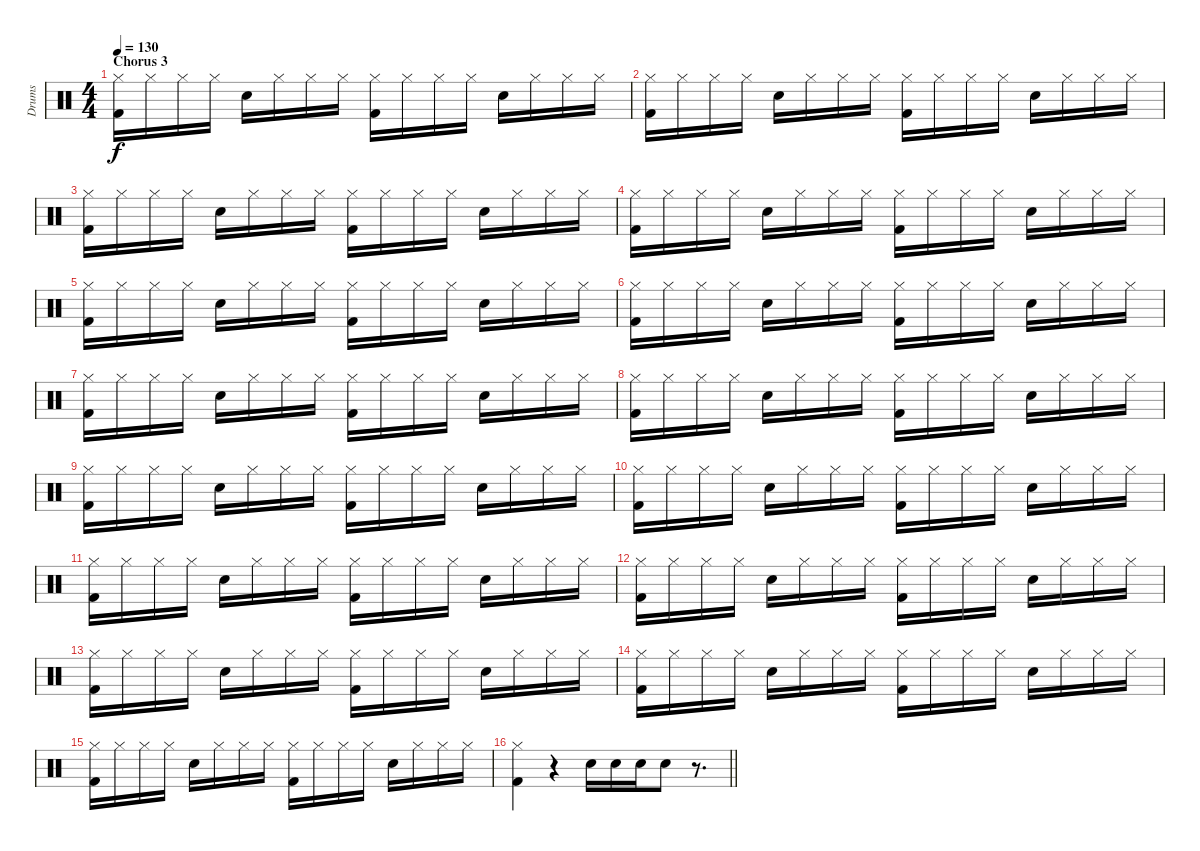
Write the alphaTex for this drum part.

\track ("Drums" "Drums") {instrument percussion}
\staff {score}
\articulation defaults
\ts (4 4)
\section ("" "Chorus 3")
\tempo 130
\clef neutral
\ks c
("Hi-Hat (closed)" "Kick (hit) 2").16{dy f} "Hi-Hat (closed)".16 "Hi-Hat (closed)".16 "Hi-Hat (closed)".16 "Snare (hit) 2".16 "Hi-Hat (closed)".16 "Hi-Hat (closed)".16 "Hi-Hat (closed)".16 ("Hi-Hat (closed)" "Kick (hit) 2").16 "Hi-Hat (closed)".16 "Hi-Hat (closed)".16 "Hi-Hat (closed)".16 "Snare (hit) 2".16 "Hi-Hat (closed)".16 "Hi-Hat (closed)".16 "Hi-Hat (closed)".16 |
("Hi-Hat (closed)" "Kick (hit) 2").16 "Hi-Hat (closed)".16 "Hi-Hat (closed)".16 "Hi-Hat (closed)".16 "Snare (hit) 2".16 "Hi-Hat (closed)".16 "Hi-Hat (closed)".16 "Hi-Hat (closed)".16 ("Hi-Hat (closed)" "Kick (hit) 2").16 "Hi-Hat (closed)".16 "Hi-Hat (closed)".16 "Hi-Hat (closed)".16 "Snare (hit) 2".16 "Hi-Hat (closed)".16 "Hi-Hat (closed)".16 "Hi-Hat (closed)".16 |
("Hi-Hat (closed)" "Kick (hit) 2").16 "Hi-Hat (closed)".16 "Hi-Hat (closed)".16 "Hi-Hat (closed)".16 "Snare (hit) 2".16 "Hi-Hat (closed)".16 "Hi-Hat (closed)".16 "Hi-Hat (closed)".16 ("Hi-Hat (closed)" "Kick (hit) 2").16 "Hi-Hat (closed)".16 "Hi-Hat (closed)".16 "Hi-Hat (closed)".16 "Snare (hit) 2".16 "Hi-Hat (closed)".16 "Hi-Hat (closed)".16 "Hi-Hat (closed)".16 |
("Hi-Hat (closed)" "Kick (hit) 2").16 "Hi-Hat (closed)".16 "Hi-Hat (closed)".16 "Hi-Hat (closed)".16 "Snare (hit) 2".16 "Hi-Hat (closed)".16 "Hi-Hat (closed)".16 "Hi-Hat (closed)".16 ("Hi-Hat (closed)" "Kick (hit) 2").16 "Hi-Hat (closed)".16 "Hi-Hat (closed)".16 "Hi-Hat (closed)".16 "Snare (hit) 2".16 "Hi-Hat (closed)".16 "Hi-Hat (closed)".16 "Hi-Hat (closed)".16 |
("Hi-Hat (closed)" "Kick (hit) 2").16 "Hi-Hat (closed)".16 "Hi-Hat (closed)".16 "Hi-Hat (closed)".16 "Snare (hit) 2".16 "Hi-Hat (closed)".16 "Hi-Hat (closed)".16 "Hi-Hat (closed)".16 ("Hi-Hat (closed)" "Kick (hit) 2").16 "Hi-Hat (closed)".16 "Hi-Hat (closed)".16 "Hi-Hat (closed)".16 "Snare (hit) 2".16 "Hi-Hat (closed)".16 "Hi-Hat (closed)".16 "Hi-Hat (closed)".16 |
("Hi-Hat (closed)" "Kick (hit) 2").16 "Hi-Hat (closed)".16 "Hi-Hat (closed)".16 "Hi-Hat (closed)".16 "Snare (hit) 2".16 "Hi-Hat (closed)".16 "Hi-Hat (closed)".16 "Hi-Hat (closed)".16 ("Hi-Hat (closed)" "Kick (hit) 2").16 "Hi-Hat (closed)".16 "Hi-Hat (closed)".16 "Hi-Hat (closed)".16 "Snare (hit) 2".16 "Hi-Hat (closed)".16 "Hi-Hat (closed)".16 "Hi-Hat (closed)".16 |
("Hi-Hat (closed)" "Kick (hit) 2").16 "Hi-Hat (closed)".16 "Hi-Hat (closed)".16 "Hi-Hat (closed)".16 "Snare (hit) 2".16 "Hi-Hat (closed)".16 "Hi-Hat (closed)".16 "Hi-Hat (closed)".16 ("Hi-Hat (closed)" "Kick (hit) 2").16 "Hi-Hat (closed)".16 "Hi-Hat (closed)".16 "Hi-Hat (closed)".16 "Snare (hit) 2".16 "Hi-Hat (closed)".16 "Hi-Hat (closed)".16 "Hi-Hat (closed)".16 |
("Hi-Hat (closed)" "Kick (hit) 2").16 "Hi-Hat (closed)".16 "Hi-Hat (closed)".16 "Hi-Hat (closed)".16 "Snare (hit) 2".16 "Hi-Hat (closed)".16 "Hi-Hat (closed)".16 "Hi-Hat (closed)".16 ("Hi-Hat (closed)" "Kick (hit) 2").16 "Hi-Hat (closed)".16 "Hi-Hat (closed)".16 "Hi-Hat (closed)".16 "Snare (hit) 2".16 "Hi-Hat (closed)".16 "Hi-Hat (closed)".16 "Hi-Hat (closed)".16 |
("Hi-Hat (closed)" "Kick (hit) 2").16 "Hi-Hat (closed)".16 "Hi-Hat (closed)".16 "Hi-Hat (closed)".16 "Snare (hit) 2".16 "Hi-Hat (closed)".16 "Hi-Hat (closed)".16 "Hi-Hat (closed)".16 ("Hi-Hat (closed)" "Kick (hit) 2").16 "Hi-Hat (closed)".16 "Hi-Hat (closed)".16 "Hi-Hat (closed)".16 "Snare (hit) 2".16 "Hi-Hat (closed)".16 "Hi-Hat (closed)".16 "Hi-Hat (closed)".16 |
("Hi-Hat (closed)" "Kick (hit) 2").16 "Hi-Hat (closed)".16 "Hi-Hat (closed)".16 "Hi-Hat (closed)".16 "Snare (hit) 2".16 "Hi-Hat (closed)".16 "Hi-Hat (closed)".16 "Hi-Hat (closed)".16 ("Hi-Hat (closed)" "Kick (hit) 2").16 "Hi-Hat (closed)".16 "Hi-Hat (closed)".16 "Hi-Hat (closed)".16 "Snare (hit) 2".16 "Hi-Hat (closed)".16 "Hi-Hat (closed)".16 "Hi-Hat (closed)".16 |
("Hi-Hat (closed)" "Kick (hit) 2").16 "Hi-Hat (closed)".16 "Hi-Hat (closed)".16 "Hi-Hat (closed)".16 "Snare (hit) 2".16 "Hi-Hat (closed)".16 "Hi-Hat (closed)".16 "Hi-Hat (closed)".16 ("Hi-Hat (closed)" "Kick (hit) 2").16 "Hi-Hat (closed)".16 "Hi-Hat (closed)".16 "Hi-Hat (closed)".16 "Snare (hit) 2".16 "Hi-Hat (closed)".16 "Hi-Hat (closed)".16 "Hi-Hat (closed)".16 |
("Hi-Hat (closed)" "Kick (hit) 2").16 "Hi-Hat (closed)".16 "Hi-Hat (closed)".16 "Hi-Hat (closed)".16 "Snare (hit) 2".16 "Hi-Hat (closed)".16 "Hi-Hat (closed)".16 "Hi-Hat (closed)".16 ("Hi-Hat (closed)" "Kick (hit) 2").16 "Hi-Hat (closed)".16 "Hi-Hat (closed)".16 "Hi-Hat (closed)".16 "Snare (hit) 2".16 "Hi-Hat (closed)".16 "Hi-Hat (closed)".16 "Hi-Hat (closed)".16 |
("Hi-Hat (closed)" "Kick (hit) 2").16 "Hi-Hat (closed)".16 "Hi-Hat (closed)".16 "Hi-Hat (closed)".16 "Snare (hit) 2".16 "Hi-Hat (closed)".16 "Hi-Hat (closed)".16 "Hi-Hat (closed)".16 ("Hi-Hat (closed)" "Kick (hit) 2").16 "Hi-Hat (closed)".16 "Hi-Hat (closed)".16 "Hi-Hat (closed)".16 "Snare (hit) 2".16 "Hi-Hat (closed)".16 "Hi-Hat (closed)".16 "Hi-Hat (closed)".16 |
("Hi-Hat (closed)" "Kick (hit) 2").16 "Hi-Hat (closed)".16 "Hi-Hat (closed)".16 "Hi-Hat (closed)".16 "Snare (hit) 2".16 "Hi-Hat (closed)".16 "Hi-Hat (closed)".16 "Hi-Hat (closed)".16 ("Hi-Hat (closed)" "Kick (hit) 2").16 "Hi-Hat (closed)".16 "Hi-Hat (closed)".16 "Hi-Hat (closed)".16 "Snare (hit) 2".16 "Hi-Hat (closed)".16 "Hi-Hat (closed)".16 "Hi-Hat (closed)".16 |
("Hi-Hat (closed)" "Kick (hit) 2").16 "Hi-Hat (closed)".16 "Hi-Hat (closed)".16 "Hi-Hat (closed)".16 "Snare (hit) 2".16 "Hi-Hat (closed)".16 "Hi-Hat (closed)".16 "Hi-Hat (closed)".16 ("Hi-Hat (closed)" "Kick (hit) 2").16 "Hi-Hat (closed)".16 "Hi-Hat (closed)".16 "Hi-Hat (closed)".16 "Snare (hit) 2".16 "Hi-Hat (closed)".16 "Hi-Hat (closed)".16 "Hi-Hat (closed)".16 |
\barLineRight lightlight
("Hi-Hat (closed)" "Kick (hit) 2").4 r.4 "Snare (hit) 2".16 "Snare (hit) 2".16 "Snare (hit) 2".16 "Snare (hit) 2".8 r.8{d}
